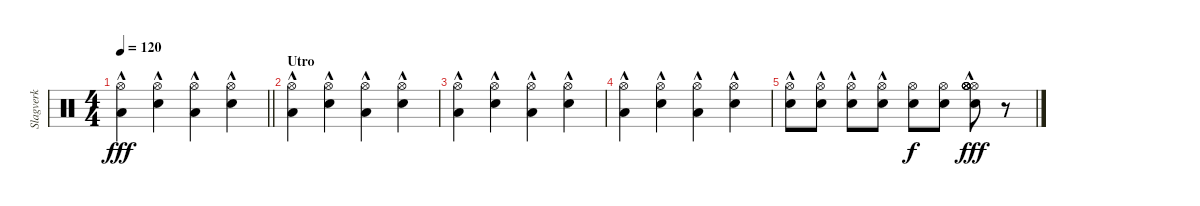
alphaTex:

\track ("Slagverk" "Slagverk") {instrument percussion}
\staff {score}
\articulation defaults
\ts (4 4)
\tempo 120
\clef neutral
\barLineRight lightlight
\ks c
("Hi-Hat (open)"{hac} "Low Floor Tom (hit)"{hac}).4{dy fff} ("Hi-Hat (open)"{hac} "Electric Snare (hit)"{hac}).4 ("Hi-Hat (open)"{hac} "Low Floor Tom (hit)"{hac}).4 ("Hi-Hat (open)"{hac} "Electric Snare (hit)"{hac}).4 |
\section ("" "Utro")
("Hi-Hat (open)"{hac} "Low Floor Tom (hit)"{hac}).4 ("Hi-Hat (open)"{hac} "Electric Snare (hit)"{hac}).4 ("Hi-Hat (open)"{hac} "Low Floor Tom (hit)"{hac}).4 ("Hi-Hat (open)"{hac} "Electric Snare (hit)"{hac}).4 |
("Hi-Hat (open)"{hac} "Low Floor Tom (hit)"{hac}).4 ("Hi-Hat (open)"{hac} "Electric Snare (hit)"{hac}).4 ("Hi-Hat (open)"{hac} "Low Floor Tom (hit)"{hac}).4 ("Hi-Hat (open)"{hac} "Electric Snare (hit)"{hac}).4 |
("Hi-Hat (open)"{hac} "Low Floor Tom (hit)"{hac}).4 ("Hi-Hat (open)"{hac} "Electric Snare (hit)"{hac}).4 ("Hi-Hat (open)"{hac} "Low Floor Tom (hit)"{hac}).4 ("Hi-Hat (open)"{hac} "Electric Snare (hit)"{hac}).4 |
("Hi-Hat (open)"{hac} "Electric Snare (hit)").8 ("Hi-Hat (open)"{hac} "Electric Snare (hit)").8 ("Hi-Hat (open)"{hac} "Electric Snare (hit)").8 ("Hi-Hat (open)"{hac} "Electric Snare (hit)").8 ("Hi-Hat (open)" "Electric Snare (hit)").8{dy f} ("Hi-Hat (open)" "Electric Snare (hit)").8 ("Hi-Hat (open)"{hac} "Hi-Hat (open)"{hac} "Hi-Hat (open)"{hac} "Hi-Hat (open)"{hac} "Electric Snare (hit)" "Hi-Hat (open)"{hac}).8{dy fff} r.8
